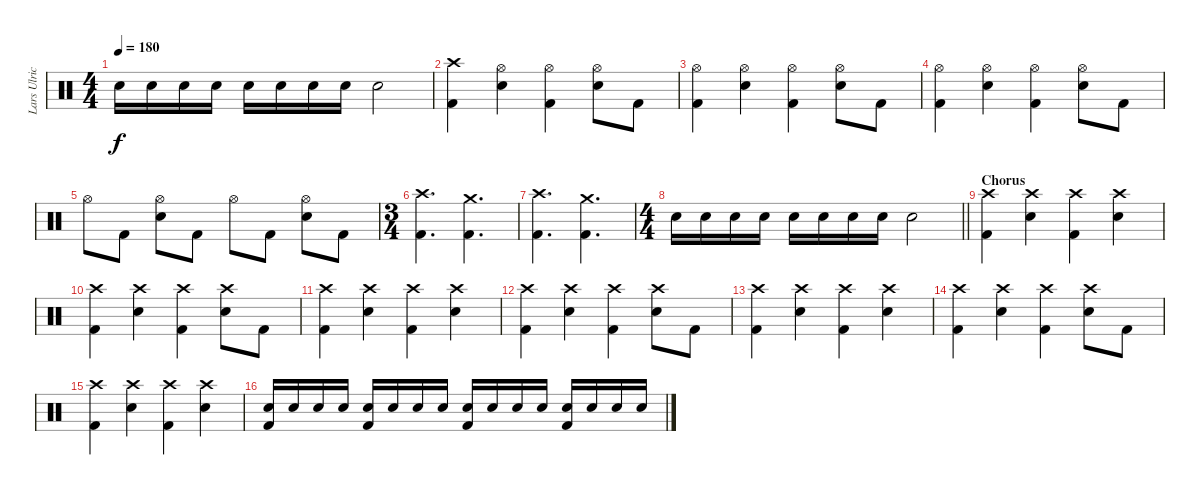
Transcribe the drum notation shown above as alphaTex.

\track ("Lars Ulrich" "Lars Ulric") {instrument percussion}
\staff {score}
\articulation defaults
\ts (4 4)
\tempo 180
\clef neutral
\ks c "Electric Snare (hit)".16{dy f} "Electric Snare (hit)".16 "Electric Snare (hit)".16 "Electric Snare (hit)".16 "Electric Snare (hit)".16 "Electric Snare (hit)".16 "Electric Snare (hit)".16 "Electric Snare (hit)".16 "Electric Snare (hit)".2
|
("Crash high (hit)" "Kick (hit) 2").4 ("Hi-Hat (open)" "Electric Snare (hit)").4 ("Hi-Hat (open)" "Kick (hit) 2").4 ("Hi-Hat (open)" "Electric Snare (hit)").8 "Kick (hit) 2".8 |
("Hi-Hat (open)" "Kick (hit) 2").4 ("Hi-Hat (open)" "Electric Snare (hit)").4 ("Hi-Hat (open)" "Kick (hit) 2").4 ("Hi-Hat (open)" "Electric Snare (hit)").8 "Kick (hit) 2".8 |
("Hi-Hat (open)" "Kick (hit) 2").4 ("Hi-Hat (open)" "Electric Snare (hit)").4 ("Hi-Hat (open)" "Kick (hit) 2").4 ("Hi-Hat (open)" "Electric Snare (hit)").8 "Kick (hit) 2".8 |
"Hi-Hat (open)".8 "Kick (hit) 2".8 ("Hi-Hat (open)" "Electric Snare (hit)").8 "Kick (hit) 2".8 "Hi-Hat (open)".8 "Kick (hit) 2".8 ("Hi-Hat (open)" "Electric Snare (hit)").8 "Kick (hit) 2".8 |
\ts (3 4)
("Crash high (hit)" "Kick (hit) 2").4{d} ("Crash medium (hit)" "Kick (hit) 2").4{d} |
("Crash high (hit)" "Kick (hit) 2").4{d} ("Crash medium (hit)" "Kick (hit) 2").4{d} |
\ts (4 4)
\barLineRight lightlight "Electric Snare (hit)".16 "Electric Snare (hit)".16 "Electric Snare (hit)".16 "Electric Snare (hit)".16 "Electric Snare (hit)".16 "Electric Snare (hit)".16 "Electric Snare (hit)".16 "Electric Snare (hit)".16 "Electric Snare (hit)".2
|
\section ("" "Chorus")
("Crash high (hit)" "Kick (hit) 2").4 ("Crash high (hit)" "Electric Snare (hit)").4 ("Crash high (hit)" "Kick (hit) 2").4 ("Crash high (hit)" "Electric Snare (hit)").4 |
("Crash high (hit)" "Kick (hit) 2").4 ("Crash high (hit)" "Electric Snare (hit)").4 ("Crash high (hit)" "Kick (hit) 2").4 ("Crash high (hit)" "Electric Snare (hit)").8 "Kick (hit) 2".8 |
("Crash high (hit)" "Kick (hit) 2").4 ("Crash high (hit)" "Electric Snare (hit)").4 ("Crash high (hit)" "Kick (hit) 2").4 ("Crash high (hit)" "Electric Snare (hit)").4 |
("Crash high (hit)" "Kick (hit) 2").4 ("Crash high (hit)" "Electric Snare (hit)").4 ("Crash high (hit)" "Kick (hit) 2").4 ("Crash high (hit)" "Electric Snare (hit)").8 "Kick (hit) 2".8 |
("Crash high (hit)" "Kick (hit) 2").4 ("Crash high (hit)" "Electric Snare (hit)").4 ("Crash high (hit)" "Kick (hit) 2").4 ("Crash high (hit)" "Electric Snare (hit)").4 |
("Crash high (hit)" "Kick (hit) 2").4 ("Crash high (hit)" "Electric Snare (hit)").4 ("Crash high (hit)" "Kick (hit) 2").4 ("Crash high (hit)" "Electric Snare (hit)").8 "Kick (hit) 2".8 |
("Crash high (hit)" "Kick (hit) 2").4 ("Crash high (hit)" "Electric Snare (hit)").4 ("Crash high (hit)" "Kick (hit) 2").4 ("Crash high (hit)" "Electric Snare (hit)").4 |
("Electric Snare (hit)" "Kick (hit) 2").16 "Electric Snare (hit)".16 "Electric Snare (hit)".16 "Electric Snare (hit)".16 ("Electric Snare (hit)" "Kick (hit) 2").16 "Electric Snare (hit)".16 "Electric Snare (hit)".16 "Electric Snare (hit)".16 ("Electric Snare (hit)" "Kick (hit) 2").16 "Electric Snare (hit)".16 "Electric Snare (hit)".16 "Electric Snare (hit)".16 ("Electric Snare (hit)" "Kick (hit) 2").16 "Electric Snare (hit)".16 "Electric Snare (hit)".16 "Electric Snare (hit)".16
